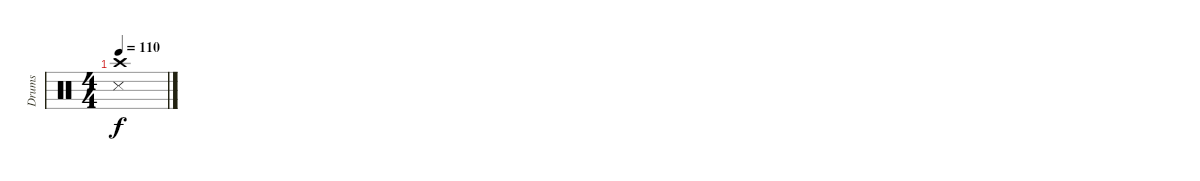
\track ("Drums" "Drums") {instrument percussion}
\staff {score}
\articulation defaults
\ts (4 4)
\tempo 110
\clef neutral
\ks c
("Crash high (hit)" "Metronome (hit)").1{dy f}
